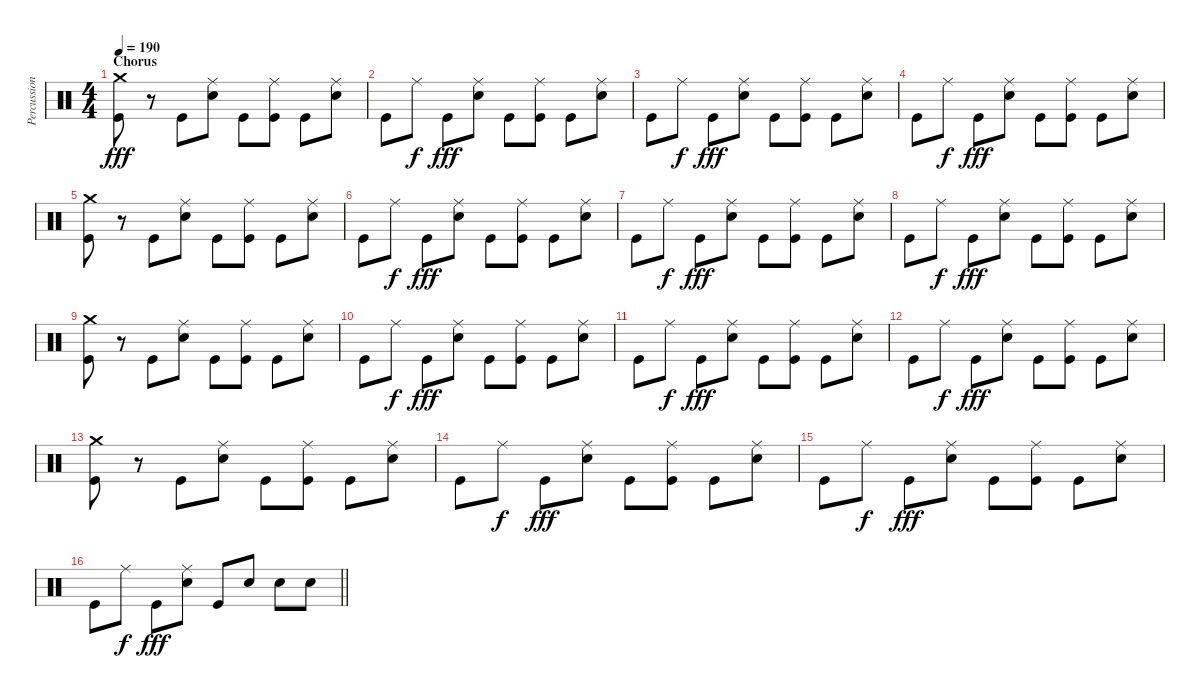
\track ("Percussioni" "Percussion") {instrument percussion}
\staff {score}
\articulation defaults
\ts (4 4)
\section ("" "Chorus")
\tempo 190
\clef neutral
\ks c
("Crash medium (hit)" "Kick (hit)").8{dy fff} r.8 "Kick (hit)".8 ("Ride (middle)" "Snare (hit) 2").8 "Kick (hit)".8 ("Ride (middle)" "Kick (hit)").8 "Kick (hit)".8 ("Ride (middle)" "Snare (hit) 2").8 |
"Kick (hit)".8 "Ride (middle)".8{dy f} "Kick (hit)".8{dy fff} ("Ride (middle)" "Snare (hit) 2").8 "Kick (hit)".8 ("Ride (middle)" "Kick (hit)").8 "Kick (hit)".8 ("Ride (middle)" "Snare (hit) 2").8 |
"Kick (hit)".8 "Ride (middle)".8{dy f} "Kick (hit)".8{dy fff} ("Ride (middle)" "Snare (hit) 2").8 "Kick (hit)".8 ("Ride (middle)" "Kick (hit)").8 "Kick (hit)".8 ("Ride (middle)" "Snare (hit) 2").8 |
"Kick (hit)".8 "Ride (middle)".8{dy f} "Kick (hit)".8{dy fff} ("Ride (middle)" "Snare (hit) 2").8 "Kick (hit)".8 ("Ride (middle)" "Kick (hit)").8 "Kick (hit)".8 ("Ride (middle)" "Snare (hit) 2").8 |
("Crash medium (hit)" "Kick (hit)").8 r.8 "Kick (hit)".8 ("Ride (middle)" "Snare (hit) 2").8 "Kick (hit)".8 ("Ride (middle)" "Kick (hit)").8 "Kick (hit)".8 ("Ride (middle)" "Snare (hit) 2").8 |
"Kick (hit)".8 "Ride (middle)".8{dy f} "Kick (hit)".8{dy fff} ("Ride (middle)" "Snare (hit) 2").8 "Kick (hit)".8 ("Ride (middle)" "Kick (hit)").8 "Kick (hit)".8 ("Ride (middle)" "Snare (hit) 2").8 |
"Kick (hit)".8 "Ride (middle)".8{dy f} "Kick (hit)".8{dy fff} ("Ride (middle)" "Snare (hit) 2").8 "Kick (hit)".8 ("Ride (middle)" "Kick (hit)").8 "Kick (hit)".8 ("Ride (middle)" "Snare (hit) 2").8 |
"Kick (hit)".8 "Ride (middle)".8{dy f} "Kick (hit)".8{dy fff} ("Ride (middle)" "Snare (hit) 2").8 "Kick (hit)".8 ("Ride (middle)" "Kick (hit)").8 "Kick (hit)".8 ("Ride (middle)" "Snare (hit) 2").8 |
("Crash medium (hit)" "Kick (hit)").8 r.8 "Kick (hit)".8 ("Ride (middle)" "Snare (hit) 2").8 "Kick (hit)".8 ("Ride (middle)" "Kick (hit)").8 "Kick (hit)".8 ("Ride (middle)" "Snare (hit) 2").8 |
"Kick (hit)".8 "Ride (middle)".8{dy f} "Kick (hit)".8{dy fff} ("Ride (middle)" "Snare (hit) 2").8 "Kick (hit)".8 ("Ride (middle)" "Kick (hit)").8 "Kick (hit)".8 ("Ride (middle)" "Snare (hit) 2").8 |
"Kick (hit)".8 "Ride (middle)".8{dy f} "Kick (hit)".8{dy fff} ("Ride (middle)" "Snare (hit) 2").8 "Kick (hit)".8 ("Ride (middle)" "Kick (hit)").8 "Kick (hit)".8 ("Ride (middle)" "Snare (hit) 2").8 |
"Kick (hit)".8 "Ride (middle)".8{dy f} "Kick (hit)".8{dy fff} ("Ride (middle)" "Snare (hit) 2").8 "Kick (hit)".8 ("Ride (middle)" "Kick (hit)").8 "Kick (hit)".8 ("Ride (middle)" "Snare (hit) 2").8 |
("Crash medium (hit)" "Kick (hit)").8 r.8 "Kick (hit)".8 ("Ride (middle)" "Snare (hit) 2").8 "Kick (hit)".8 ("Ride (middle)" "Kick (hit)").8 "Kick (hit)".8 ("Ride (middle)" "Snare (hit) 2").8 |
"Kick (hit)".8 "Ride (middle)".8{dy f} "Kick (hit)".8{dy fff} ("Ride (middle)" "Snare (hit) 2").8 "Kick (hit)".8 ("Ride (middle)" "Kick (hit)").8 "Kick (hit)".8 ("Ride (middle)" "Snare (hit) 2").8 |
"Kick (hit)".8 "Ride (middle)".8{dy f} "Kick (hit)".8{dy fff} ("Ride (middle)" "Snare (hit) 2").8 "Kick (hit)".8 ("Ride (middle)" "Kick (hit)").8 "Kick (hit)".8 ("Ride (middle)" "Snare (hit) 2").8 |
\barLineRight lightlight "Kick (hit)".8 "Ride (middle)".8{dy f} "Kick (hit)".8{dy fff}
("Ride (middle)" "Snare (hit) 2").8 "Kick (hit)".8 "Snare (hit) 2".8 "Snare (hit) 2".8 "Snare (hit) 2".8
